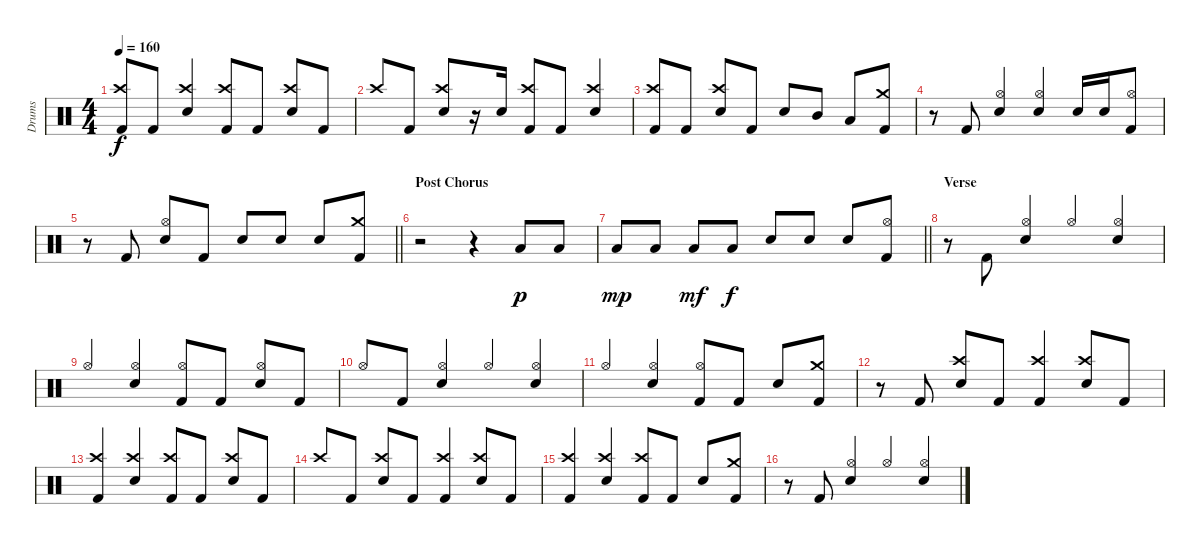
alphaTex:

\track ("Drums" "Drums") {solo instrument percussion}
\staff {score}
\articulation defaults
\ts (4 4)
\tempo 160
\clef neutral
\ks c
("Crash high (hit)" "Kick (hit) 2").8{dy f beam Up} "Kick (hit) 2".8{beam Up} ("Crash high (hit)" "Snare (hit) 2").4{beam Up} ("Crash high (hit)" "Kick (hit) 2").8{beam Up} "Kick (hit) 2".8{beam Up} ("Crash high (hit)" "Snare (hit) 2").8{beam Up} "Kick (hit) 2".8{beam Up} |
"Crash high (hit)".8{beam Up} "Kick (hit) 2".8{beam Up} ("Crash high (hit)" "Snare (hit) 2").8{beam Up} r.16 "Snare (hit) 2".16{beam Up} ("Crash high (hit)" "Kick (hit) 2").8{beam Up} "Kick (hit) 2".8{beam Up} ("Crash high (hit)" "Snare (hit) 2").4{beam Up} |
("Crash high (hit)" "Kick (hit) 2").8{beam Up} "Kick (hit) 2".8{beam Up} ("Crash high (hit)" "Snare (hit) 2").8{beam Up} "Kick (hit) 2".8{beam Up} "Snare (hit) 2".8{beam Up} "Mid Tom (hit)".8{beam Up} "Low Tom (hit)".8{beam Up} ("Crash medium (hit)" "Kick (hit) 2").8{beam Up} |
r.8{beam Up} "Kick (hit) 2".8{beam Down} ("Hi-Hat (open)" "Snare (hit) 2").4{beam Up} ("Hi-Hat (open)" "Snare (hit) 2").4{beam Up} "Snare (hit) 2".16{beam Up} "Snare (hit) 2".16{beam Up} ("Hi-Hat (open)" "Kick (hit) 2").8{beam Up} |
\barLineRight lightlight
r.8{beam Up} "Kick (hit) 2".8{beam Down} ("Hi-Hat (open)" "Snare (hit) 2").8{beam Up} "Kick (hit) 2".8{beam Up} "Snare (hit) 2".8{beam Up} "Snare (hit) 2".8{beam Up} "Snare (hit) 2".8{beam Up} ("Crash medium (hit)" "Kick (hit) 2").8{beam Up} |
\section ("" "Post Chorus")
r.2 r.4 "Low Tom (hit)".8{dy p beam Up} "Low Tom (hit)".8{beam Up} |
\barLineRight lightlight "Low Tom (hit)".8{dy mp beam Up} "Low Tom (hit)".8{beam Up} "Low Tom (hit)".8{dy mf beam Up} "Low Tom (hit)".8{dy f beam Up} "Snare (hit) 2".8{beam Up} "Snare (hit) 2".8{beam Up} "Snare (hit) 2".8{beam Up}
("Hi-Hat (open)" "Kick (hit) 2").8{beam Up} |
\section ("" "Verse")
r.8 "Kick (hit) 2".8{beam Down} ("Hi-Hat (open)" "Snare (hit) 2").4{beam Up} "Hi-Hat (open)".4{beam Up} ("Hi-Hat (open)" "Snare (hit) 2").4{beam Up} |
"Hi-Hat (open)".4{beam Up} ("Hi-Hat (open)" "Snare (hit) 2").4{beam Up} ("Hi-Hat (open)" "Kick (hit) 2").8{beam Up} "Kick (hit) 2".8{beam Up} ("Hi-Hat (open)" "Snare (hit) 2").8{beam Up} "Kick (hit) 2".8{beam Up} |
"Hi-Hat (open)".8{beam Up} "Kick (hit) 2".8{beam Up} ("Hi-Hat (open)" "Snare (hit) 2").4{beam Up} "Hi-Hat (open)".4{beam Up} ("Hi-Hat (open)" "Snare (hit) 2").4{beam Up} |
"Hi-Hat (open)".4{beam Up} ("Hi-Hat (open)" "Snare (hit) 2").4{beam Up} ("Hi-Hat (open)" "Kick (hit) 2").8{beam Up} "Kick (hit) 2".8{beam Up} "Snare (hit) 2".8{beam Up} ("Crash medium (hit)" "Kick (hit) 2").8{beam Up} |
r.8{beam Up} "Kick (hit) 2".8{beam Down} ("Crash high (hit)" "Snare (hit) 2").8{beam Up} "Kick (hit) 2".8{beam Up} ("Crash high (hit)" "Kick (hit) 2").4{beam Up} ("Crash high (hit)" "Snare (hit) 2").8{beam Up} "Kick (hit) 2".8{beam Up} |
("Crash high (hit)" "Kick (hit) 2").4{beam Up} ("Crash high (hit)" "Snare (hit) 2").4{beam Up} ("Crash high (hit)" "Kick (hit) 2").8{beam Up} "Kick (hit) 2".8{beam Up} ("Crash high (hit)" "Snare (hit) 2").8{beam Up} "Kick (hit) 2".8{beam Up} |
"Crash high (hit)".8{beam Up} "Kick (hit) 2".8{beam Up} ("Crash high (hit)" "Snare (hit) 2").8{beam Up} "Kick (hit) 2".8{beam Up} ("Crash high (hit)" "Kick (hit) 2").4{beam Up} ("Crash high (hit)" "Snare (hit) 2").8{beam Up} "Kick (hit) 2".8{beam Up} |
("Crash high (hit)" "Kick (hit) 2").4{beam Up} ("Crash high (hit)" "Snare (hit) 2").4{beam Up} ("Crash high (hit)" "Kick (hit) 2").8{beam Up} "Kick (hit) 2".8{beam Up} "Snare (hit) 2".8{beam Up} ("Crash medium (hit)" "Kick (hit) 2").8{beam Up} |
r.8{beam Up} "Kick (hit) 2".8{beam Down} ("Hi-Hat (open)" "Snare (hit) 2").4{beam Up} "Hi-Hat (open)".4{beam Up} ("Hi-Hat (open)" "Snare (hit) 2").4{beam Up}
